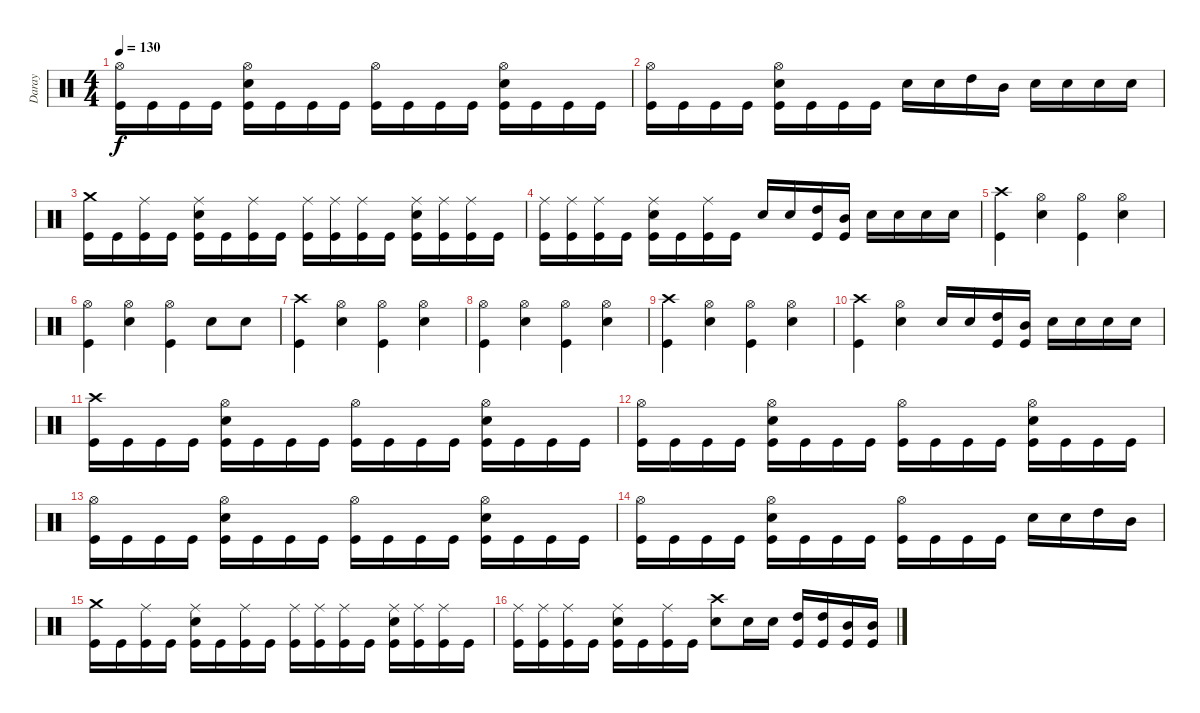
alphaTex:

\track ("Daray" "Daray") {instrument percussion}
\staff {score}
\articulation defaults
\ts (4 4)
\tempo 130
\clef neutral
\ks c
("Hi-Hat (open)" "Kick (hit)").16{dy f} "Kick (hit)".16 "Kick (hit)".16 "Kick (hit)".16 ("Hi-Hat (open)" "Electric Snare (hit)" "Kick (hit)").16 "Kick (hit)".16 "Kick (hit)".16 "Kick (hit)".16 ("Hi-Hat (open)" "Kick (hit)").16 "Kick (hit)".16 "Kick (hit)".16 "Kick (hit)".16 ("Hi-Hat (open)" "Electric Snare (hit)" "Kick (hit)").16 "Kick (hit)".16 "Kick (hit)".16 "Kick (hit)".16 |
("Hi-Hat (open)" "Kick (hit)").16 "Kick (hit)".16 "Kick (hit)".16 "Kick (hit)".16 ("Hi-Hat (open)" "Electric Snare (hit)" "Kick (hit)").16 "Kick (hit)".16 "Kick (hit)".16 "Kick (hit)".16 "Electric Snare (hit)".16 "Electric Snare (hit)".16 "High Tom (hit)".16 "Mid Tom (hit)".16 "Electric Snare (hit)".16 "Electric Snare (hit)".16 "Electric Snare (hit)".16 "Electric Snare (hit)".16 |
("Crash medium (hit)" "Kick (hit)").16 "Kick (hit)".16 ("Ride (middle)" "Kick (hit)").16 "Kick (hit)".16 ("Ride (middle)" "Electric Snare (hit)" "Kick (hit)").16 "Kick (hit)".16 ("Ride (middle)" "Kick (hit)").16 "Kick (hit)".16 ("Ride (middle)" "Kick (hit)").16 ("Ride (middle)" "Kick (hit)").16 ("Ride (middle)" "Kick (hit)").16 "Kick (hit)".16 ("Ride (middle)" "Electric Snare (hit)" "Kick (hit)").16 ("Ride (middle)" "Kick (hit)").16 ("Ride (middle)" "Kick (hit)").16 "Kick (hit)".16 |
("Ride (middle)" "Kick (hit)").16 ("Ride (middle)" "Kick (hit)").16 ("Ride (middle)" "Kick (hit)").16 "Kick (hit)".16 ("Ride (middle)" "Electric Snare (hit)" "Kick (hit)").16 "Kick (hit)".16 ("Ride (middle)" "Kick (hit)").16 "Kick (hit)".16 "Electric Snare (hit)".16 "Electric Snare (hit)".16 ("High Tom (hit)" "Kick (hit)").16 ("Mid Tom (hit)" "Kick (hit)").16 "Electric Snare (hit)".16 "Electric Snare (hit)".16 "Electric Snare (hit)".16 "Electric Snare (hit)".16 |
("Crash high (hit)" "Kick (hit)").4 ("Hi-Hat (open)" "Electric Snare (hit)").4 ("Hi-Hat (open)" "Kick (hit)").4 ("Hi-Hat (open)" "Electric Snare (hit)").4 |
("Hi-Hat (open)" "Kick (hit)").4 ("Hi-Hat (open)" "Electric Snare (hit)").4 ("Hi-Hat (open)" "Kick (hit)").4 "Electric Snare (hit)".8 "Electric Snare (hit)".8 |
("Crash high (hit)" "Kick (hit)").4 ("Hi-Hat (open)" "Electric Snare (hit)").4 ("Hi-Hat (open)" "Kick (hit)").4 ("Hi-Hat (open)" "Electric Snare (hit)").4 |
("Hi-Hat (open)" "Kick (hit)").4 ("Hi-Hat (open)" "Electric Snare (hit)").4 ("Hi-Hat (open)" "Kick (hit)").4 ("Hi-Hat (open)" "Electric Snare (hit)").4 |
("Crash high (hit)" "Kick (hit)").4 ("Hi-Hat (open)" "Electric Snare (hit)").4 ("Hi-Hat (open)" "Kick (hit)").4 ("Hi-Hat (open)" "Electric Snare (hit)").4 |
("Crash high (hit)" "Kick (hit)").4 ("Hi-Hat (open)" "Electric Snare (hit)").4 "Electric Snare (hit)".16 "Electric Snare (hit)".16 ("High Tom (hit)" "Kick (hit)").16 ("Mid Tom (hit)" "Kick (hit)").16 "Electric Snare (hit)".16 "Electric Snare (hit)".16 "Electric Snare (hit)".16 "Electric Snare (hit)".16 |
("Crash high (hit)" "Kick (hit)").16 "Kick (hit)".16 "Kick (hit)".16 "Kick (hit)".16 ("Hi-Hat (open)" "Electric Snare (hit)" "Kick (hit)").16 "Kick (hit)".16 "Kick (hit)".16 "Kick (hit)".16 ("Hi-Hat (open)" "Kick (hit)").16 "Kick (hit)".16 "Kick (hit)".16 "Kick (hit)".16 ("Hi-Hat (open)" "Electric Snare (hit)" "Kick (hit)").16 "Kick (hit)".16 "Kick (hit)".16 "Kick (hit)".16 |
("Hi-Hat (open)" "Kick (hit)").16 "Kick (hit)".16 "Kick (hit)".16 "Kick (hit)".16 ("Hi-Hat (open)" "Electric Snare (hit)" "Kick (hit)").16 "Kick (hit)".16 "Kick (hit)".16 "Kick (hit)".16 ("Hi-Hat (open)" "Kick (hit)").16 "Kick (hit)".16 "Kick (hit)".16 "Kick (hit)".16 ("Hi-Hat (open)" "Electric Snare (hit)" "Kick (hit)").16 "Kick (hit)".16 "Kick (hit)".16 "Kick (hit)".16 |
("Hi-Hat (open)" "Kick (hit)").16 "Kick (hit)".16 "Kick (hit)".16 "Kick (hit)".16 ("Hi-Hat (open)" "Electric Snare (hit)" "Kick (hit)").16 "Kick (hit)".16 "Kick (hit)".16 "Kick (hit)".16 ("Hi-Hat (open)" "Kick (hit)").16 "Kick (hit)".16 "Kick (hit)".16 "Kick (hit)".16 ("Hi-Hat (open)" "Electric Snare (hit)" "Kick (hit)").16 "Kick (hit)".16 "Kick (hit)".16 "Kick (hit)".16 |
("Hi-Hat (open)" "Kick (hit)").16 "Kick (hit)".16 "Kick (hit)".16 "Kick (hit)".16 ("Hi-Hat (open)" "Electric Snare (hit)" "Kick (hit)").16 "Kick (hit)".16 "Kick (hit)".16 "Kick (hit)".16 ("Hi-Hat (open)" "Kick (hit)").16 "Kick (hit)".16 "Kick (hit)".16 "Kick (hit)".16 "Electric Snare (hit)".16 "Electric Snare (hit)".16 "High Tom (hit)".16 "Mid Tom (hit)".16 |
("Crash medium (hit)" "Kick (hit)").16 "Kick (hit)".16 ("Ride (middle)" "Kick (hit)").16 "Kick (hit)".16 ("Ride (middle)" "Electric Snare (hit)" "Kick (hit)").16 "Kick (hit)".16 ("Ride (middle)" "Kick (hit)").16 "Kick (hit)".16 ("Ride (middle)" "Kick (hit)").16 ("Ride (middle)" "Kick (hit)").16 ("Ride (middle)" "Kick (hit)").16 "Kick (hit)".16 ("Ride (middle)" "Electric Snare (hit)" "Kick (hit)").16 ("Ride (middle)" "Kick (hit)").16 ("Ride (middle)" "Kick (hit)").16 "Kick (hit)".16 |
("Ride (middle)" "Kick (hit)").16 ("Ride (middle)" "Kick (hit)").16 ("Ride (middle)" "Kick (hit)").16 "Kick (hit)".16 ("Ride (middle)" "Electric Snare (hit)" "Kick (hit)").16 "Kick (hit)".16 ("Ride (middle)" "Kick (hit)").16 "Kick (hit)".16 ("Crash high (hit)" "Electric Snare (hit)").8 "Electric Snare (hit)".16 "Electric Snare (hit)".16 ("High Tom (hit)" "Kick (hit)").16 ("High Tom (hit)" "Kick (hit)").16 ("Mid Tom (hit)" "Kick (hit)").16 ("Mid Tom (hit)" "Kick (hit)").16
